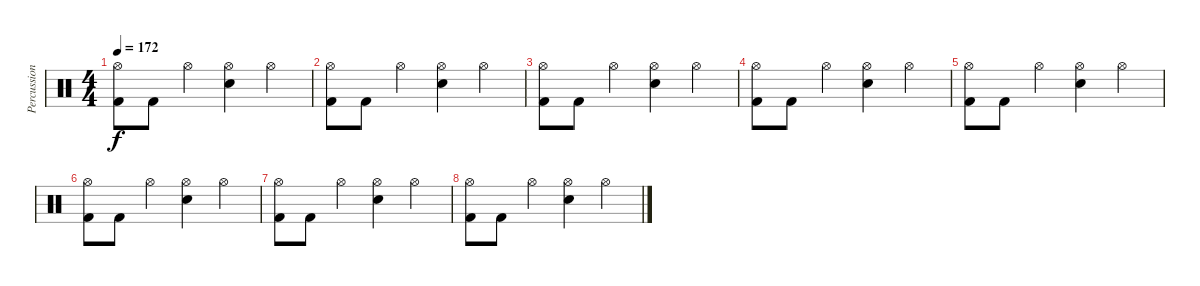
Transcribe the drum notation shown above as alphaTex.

\track ("Percussion" "Percussion") {instrument percussion}
\staff {score}
\articulation defaults
\ts (4 4)
\tempo 172
\clef neutral
\ks c
("Hi-Hat (open)" "Kick (hit) 2").8{dy f} "Kick (hit) 2".8 "Hi-Hat (open)".4 ("Hi-Hat (open)" "Electric Snare (hit)").4 "Hi-Hat (open)".4 |
("Hi-Hat (open)" "Kick (hit) 2").8 "Kick (hit) 2".8 "Hi-Hat (open)".4 ("Hi-Hat (open)" "Electric Snare (hit)").4 "Hi-Hat (open)".4 |
("Hi-Hat (open)" "Kick (hit) 2").8 "Kick (hit) 2".8 "Hi-Hat (open)".4 ("Hi-Hat (open)" "Electric Snare (hit)").4 "Hi-Hat (open)".4 |
("Hi-Hat (open)" "Kick (hit) 2").8 "Kick (hit) 2".8 "Hi-Hat (open)".4 ("Hi-Hat (open)" "Electric Snare (hit)").4 "Hi-Hat (open)".4 |
("Hi-Hat (open)" "Kick (hit) 2").8 "Kick (hit) 2".8 "Hi-Hat (open)".4 ("Hi-Hat (open)" "Electric Snare (hit)").4 "Hi-Hat (open)".4 |
("Hi-Hat (open)" "Kick (hit) 2").8 "Kick (hit) 2".8 "Hi-Hat (open)".4 ("Hi-Hat (open)" "Electric Snare (hit)").4 "Hi-Hat (open)".4 |
("Hi-Hat (open)" "Kick (hit) 2").8 "Kick (hit) 2".8 "Hi-Hat (open)".4 ("Hi-Hat (open)" "Electric Snare (hit)").4 "Hi-Hat (open)".4 |
("Hi-Hat (open)" "Kick (hit) 2").8 "Kick (hit) 2".8 "Hi-Hat (open)".4 ("Hi-Hat (open)" "Electric Snare (hit)").4 "Hi-Hat (open)".4
